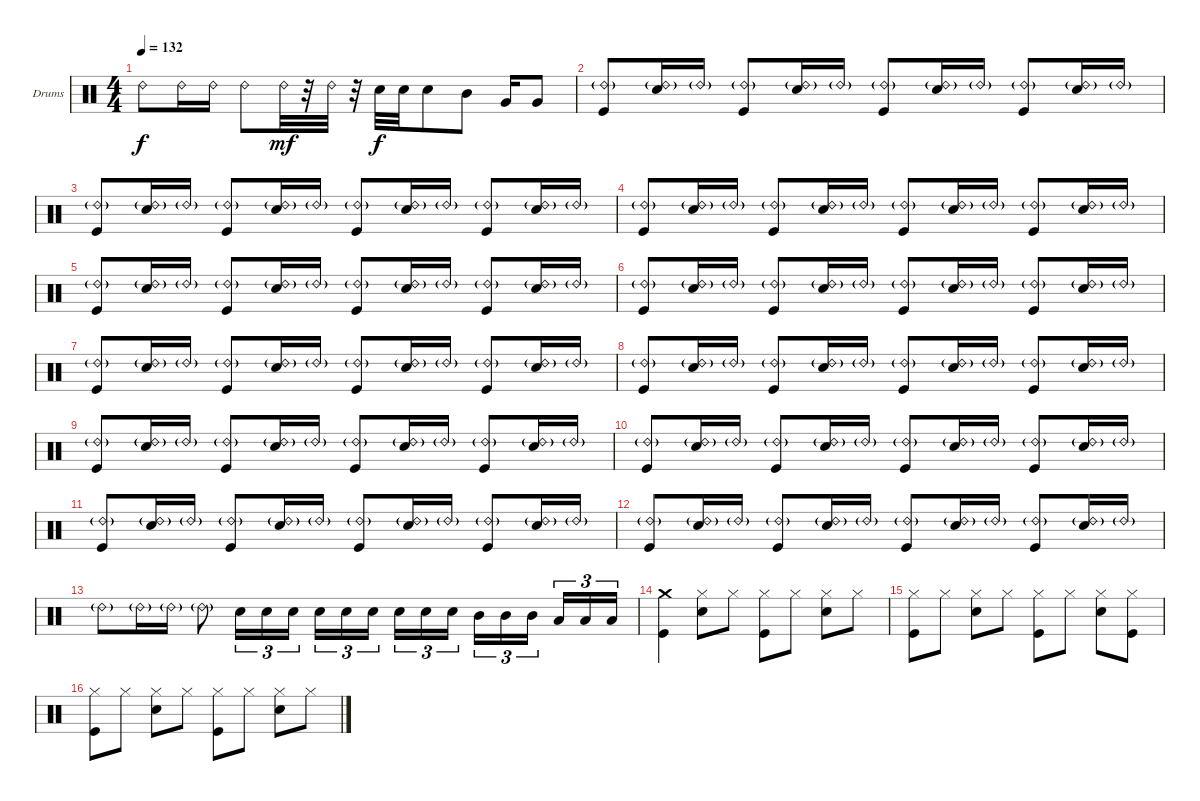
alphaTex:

\defaultSystemsLayout 4
\bracketExtendMode groupsimilarinstruments
\firstSystemTrackNameOrientation horizontal
\otherSystemsTrackNameOrientation horizontal
\track ("Drumkit" "Drums") {instrument percussion}
\staff {score}
\articulation defaults
\ts (4 4)
\tempo 132
\clef neutral
\ks c "Ride (bell) 2".8{dy f} "Ride (bell) 2".16 "Ride (bell) 2".16 "Ride (bell) 2".8 "Ride (bell) 2".32{dy mf}
r.32 "Ride (bell) 2".32 r.32 "Snare (hit) 2".32{dy f} "Snare (hit) 2".32 "Snare (hit) 2".8 "Mid Tom (hit)".8 "Very Low Tom (hit)".16 "Very Low Tom (hit)".8 |
("Ride (bell) 2"{g} "Kick (hit)").8 ("Ride (bell) 2"{g} "Snare (hit) 2").16 "Ride (bell) 2"{g}.16 ("Ride (bell) 2"{g} "Kick (hit)").8 ("Ride (bell) 2"{g} "Snare (hit) 2").16 "Ride (bell) 2"{g}.16 ("Ride (bell) 2"{g} "Kick (hit)").8 ("Ride (bell) 2"{g} "Snare (hit) 2").16 "Ride (bell) 2"{g}.16 ("Ride (bell) 2"{g} "Kick (hit)").8 ("Ride (bell) 2"{g} "Snare (hit) 2").16 "Ride (bell) 2"{g}.16 |
("Ride (bell) 2"{g} "Kick (hit)").8 ("Ride (bell) 2"{g} "Snare (hit) 2").16 "Ride (bell) 2"{g}.16 ("Ride (bell) 2"{g} "Kick (hit)").8 ("Ride (bell) 2"{g} "Snare (hit) 2").16 "Ride (bell) 2"{g}.16 ("Ride (bell) 2"{g} "Kick (hit)").8 ("Ride (bell) 2"{g} "Snare (hit) 2").16 "Ride (bell) 2"{g}.16 ("Ride (bell) 2"{g} "Kick (hit)").8 ("Ride (bell) 2"{g} "Snare (hit) 2").16 "Ride (bell) 2"{g}.16 |
("Ride (bell) 2"{g} "Kick (hit)").8 ("Ride (bell) 2"{g} "Snare (hit) 2").16 "Ride (bell) 2"{g}.16 ("Ride (bell) 2"{g} "Kick (hit)").8 ("Ride (bell) 2"{g} "Snare (hit) 2").16 "Ride (bell) 2"{g}.16 ("Ride (bell) 2"{g} "Kick (hit)").8 ("Ride (bell) 2"{g} "Snare (hit) 2").16 "Ride (bell) 2"{g}.16 ("Ride (bell) 2"{g} "Kick (hit)").8 ("Ride (bell) 2"{g} "Snare (hit) 2").16 "Ride (bell) 2"{g}.16 |
("Ride (bell) 2"{g} "Kick (hit)").8 ("Ride (bell) 2"{g} "Snare (hit) 2").16 "Ride (bell) 2"{g}.16 ("Ride (bell) 2"{g} "Kick (hit)").8 ("Ride (bell) 2"{g} "Snare (hit) 2").16 "Ride (bell) 2"{g}.16 ("Ride (bell) 2"{g} "Kick (hit)").8 ("Ride (bell) 2"{g} "Snare (hit) 2").16 "Ride (bell) 2"{g}.16 ("Ride (bell) 2"{g} "Kick (hit)").8 ("Ride (bell) 2"{g} "Snare (hit) 2").16 "Ride (bell) 2"{g}.16 |
("Ride (bell) 2"{g} "Kick (hit)").8 ("Ride (bell) 2"{g} "Snare (hit) 2").16 "Ride (bell) 2"{g}.16 ("Ride (bell) 2"{g} "Kick (hit)").8 ("Ride (bell) 2"{g} "Snare (hit) 2").16 "Ride (bell) 2"{g}.16 ("Ride (bell) 2"{g} "Kick (hit)").8 ("Ride (bell) 2"{g} "Snare (hit) 2").16 "Ride (bell) 2"{g}.16 ("Ride (bell) 2"{g} "Kick (hit)").8 ("Ride (bell) 2"{g} "Snare (hit) 2").16 "Ride (bell) 2"{g}.16 |
("Ride (bell) 2"{g} "Kick (hit)").8 ("Ride (bell) 2"{g} "Snare (hit) 2").16 "Ride (bell) 2"{g}.16 ("Ride (bell) 2"{g} "Kick (hit)").8 ("Ride (bell) 2"{g} "Snare (hit) 2").16 "Ride (bell) 2"{g}.16 ("Ride (bell) 2"{g} "Kick (hit)").8 ("Ride (bell) 2"{g} "Snare (hit) 2").16 "Ride (bell) 2"{g}.16 ("Ride (bell) 2"{g} "Kick (hit)").8 ("Ride (bell) 2"{g} "Snare (hit) 2").16 "Ride (bell) 2"{g}.16 |
("Ride (bell) 2"{g} "Kick (hit)").8 ("Ride (bell) 2"{g} "Snare (hit) 2").16 "Ride (bell) 2"{g}.16 ("Ride (bell) 2"{g} "Kick (hit)").8 ("Ride (bell) 2"{g} "Snare (hit) 2").16 "Ride (bell) 2"{g}.16 ("Ride (bell) 2"{g} "Kick (hit)").8 ("Ride (bell) 2"{g} "Snare (hit) 2").16 "Ride (bell) 2"{g}.16 ("Ride (bell) 2"{g} "Kick (hit)").8 ("Ride (bell) 2"{g} "Snare (hit) 2").16 "Ride (bell) 2"{g}.16 |
("Ride (bell) 2"{g} "Kick (hit)").8 ("Ride (bell) 2"{g} "Snare (hit) 2").16 "Ride (bell) 2"{g}.16 ("Ride (bell) 2"{g} "Kick (hit)").8 ("Ride (bell) 2"{g} "Snare (hit) 2").16 "Ride (bell) 2"{g}.16 ("Ride (bell) 2"{g} "Kick (hit)").8 ("Ride (bell) 2"{g} "Snare (hit) 2").16 "Ride (bell) 2"{g}.16 ("Ride (bell) 2"{g} "Kick (hit)").8 ("Ride (bell) 2"{g} "Snare (hit) 2").16 "Ride (bell) 2"{g}.16 |
("Ride (bell) 2"{g} "Kick (hit)").8 ("Ride (bell) 2"{g} "Snare (hit) 2").16 "Ride (bell) 2"{g}.16 ("Ride (bell) 2"{g} "Kick (hit)").8 ("Ride (bell) 2"{g} "Snare (hit) 2").16 "Ride (bell) 2"{g}.16 ("Ride (bell) 2"{g} "Kick (hit)").8 ("Ride (bell) 2"{g} "Snare (hit) 2").16 "Ride (bell) 2"{g}.16 ("Ride (bell) 2"{g} "Kick (hit)").8 ("Ride (bell) 2"{g} "Snare (hit) 2").16 "Ride (bell) 2"{g}.16 |
("Ride (bell) 2"{g} "Kick (hit)").8 ("Ride (bell) 2"{g} "Snare (hit) 2").16 "Ride (bell) 2"{g}.16 ("Ride (bell) 2"{g} "Kick (hit)").8 ("Ride (bell) 2"{g} "Snare (hit) 2").16 "Ride (bell) 2"{g}.16 ("Ride (bell) 2"{g} "Kick (hit)").8 ("Ride (bell) 2"{g} "Snare (hit) 2").16 "Ride (bell) 2"{g}.16 ("Ride (bell) 2"{g} "Kick (hit)").8 ("Ride (bell) 2"{g} "Snare (hit) 2").16 "Ride (bell) 2"{g}.16 |
("Ride (bell) 2"{g} "Kick (hit)").8 ("Ride (bell) 2"{g} "Snare (hit) 2").16 "Ride (bell) 2"{g}.16 ("Ride (bell) 2"{g} "Kick (hit)").8 ("Ride (bell) 2"{g} "Snare (hit) 2").16 "Ride (bell) 2"{g}.16 ("Ride (bell) 2"{g} "Kick (hit)").8 ("Ride (bell) 2"{g} "Snare (hit) 2").16 "Ride (bell) 2"{g}.16 ("Ride (bell) 2"{g} "Kick (hit)").8 ("Ride (bell) 2"{g} "Snare (hit) 2").16 "Ride (bell) 2"{g}.16 |
"Ride (bell) 2"{g}.8 "Ride (bell) 2"{g}.16 "Ride (bell) 2"{g}.16 "Ride (bell) 2"{g}.8 "Snare (hit) 2".16{tu (3 2)} "Snare (hit) 2".16{tu (3 2)} "Snare (hit) 2".16{tu (3 2)} "Snare (hit) 2".16{tu (3 2)} "Snare (hit) 2".16{tu (3 2)} "Snare (hit) 2".16{tu (3 2)} "Snare (hit) 2".16{tu (3 2)} "Snare (hit) 2".16{tu (3 2)} "Snare (hit) 2".16{tu (3 2)} "Mid Tom (hit)".16{tu (3 2)} "Mid Tom (hit)".16{tu (3 2)} "Mid Tom (hit)".16{tu (3 2)} "Low Tom (hit)".16{tu (3 2)} "Low Tom (hit)".16{tu (3 2)} "Low Tom (hit)".16{tu (3 2)} |
("Kick (hit)" "Crash medium (hit)").4 ("Snare (hit) 2" "Hi-Hat (closed)").8 "Hi-Hat (closed)".8 ("Kick (hit)" "Hi-Hat (closed)").8 "Hi-Hat (closed)".8 ("Snare (hit) 2" "Hi-Hat (closed)").8 "Hi-Hat (closed)".8 |
("Kick (hit)" "Hi-Hat (closed)").8 "Hi-Hat (closed)".8 ("Snare (hit) 2" "Hi-Hat (closed)").8 "Hi-Hat (closed)".8 ("Kick (hit)" "Hi-Hat (closed)").8 "Hi-Hat (closed)".8 ("Snare (hit) 2" "Hi-Hat (closed)").8 ("Kick (hit)" "Hi-Hat (closed)").8 |
("Kick (hit)" "Hi-Hat (closed)").8 "Hi-Hat (closed)".8 ("Snare (hit) 2" "Hi-Hat (closed)").8 "Hi-Hat (closed)".8 ("Kick (hit)" "Hi-Hat (closed)").8 "Hi-Hat (closed)".8 ("Snare (hit) 2" "Hi-Hat (closed)").8 "Hi-Hat (closed)".8
